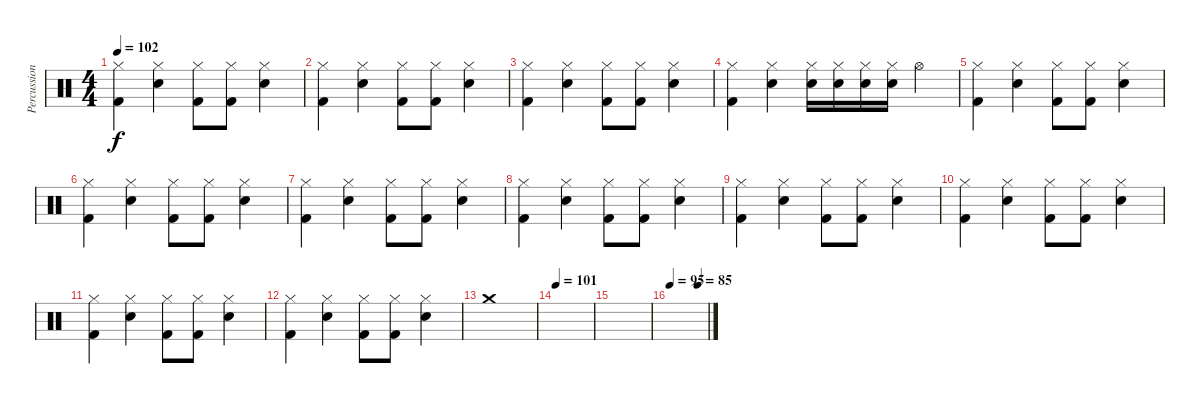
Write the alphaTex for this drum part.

\track ("Percussion" "Percussion") {instrument percussion}
\staff {score}
\articulation defaults
\ts (4 4)
\tempo 102
\clef neutral
\ks c
("Hi-Hat (closed)" "Kick (hit) 2").4{dy f} ("Hi-Hat (closed)" "Snare (hit) 2").4 ("Hi-Hat (closed)" "Kick (hit) 2").8 ("Hi-Hat (closed)" "Kick (hit) 2").8 ("Hi-Hat (closed)" "Snare (hit) 2").4 |
("Hi-Hat (closed)" "Kick (hit) 2").4 ("Hi-Hat (closed)" "Snare (hit) 2").4 ("Hi-Hat (closed)" "Kick (hit) 2").8 ("Hi-Hat (closed)" "Kick (hit) 2").8 ("Hi-Hat (closed)" "Snare (hit) 2").4 |
("Hi-Hat (closed)" "Kick (hit) 2").4 ("Hi-Hat (closed)" "Snare (hit) 2").4 ("Hi-Hat (closed)" "Kick (hit) 2").8 ("Hi-Hat (closed)" "Kick (hit) 2").8 ("Hi-Hat (closed)" "Snare (hit) 2").4 |
("Hi-Hat (closed)" "Kick (hit) 2").4 ("Hi-Hat (closed)" "Snare (hit) 2").4 ("Hi-Hat (closed)" "Snare (hit) 2").16 ("Hi-Hat (closed)" "Snare (hit) 2").16 ("Hi-Hat (closed)" "Snare (hit) 2").16 ("Hi-Hat (closed)" "Snare (hit) 2").16 "Hi-Hat (open)".4 |
("Hi-Hat (closed)" "Kick (hit) 2").4 ("Hi-Hat (closed)" "Snare (hit) 2").4 ("Hi-Hat (closed)" "Kick (hit) 2").8 ("Hi-Hat (closed)" "Kick (hit) 2").8 ("Hi-Hat (closed)" "Snare (hit) 2").4 |
("Hi-Hat (closed)" "Kick (hit) 2").4 ("Hi-Hat (closed)" "Snare (hit) 2").4 ("Hi-Hat (closed)" "Kick (hit) 2").8 ("Hi-Hat (closed)" "Kick (hit) 2").8 ("Hi-Hat (closed)" "Snare (hit) 2").4 |
("Hi-Hat (closed)" "Kick (hit) 2").4 ("Hi-Hat (closed)" "Snare (hit) 2").4 ("Hi-Hat (closed)" "Kick (hit) 2").8 ("Hi-Hat (closed)" "Kick (hit) 2").8 ("Hi-Hat (closed)" "Snare (hit) 2").4 |
("Hi-Hat (closed)" "Kick (hit) 2").4 ("Hi-Hat (closed)" "Snare (hit) 2").4 ("Hi-Hat (closed)" "Kick (hit) 2").8 ("Hi-Hat (closed)" "Kick (hit) 2").8 ("Hi-Hat (closed)" "Snare (hit) 2").4 |
("Hi-Hat (closed)" "Kick (hit) 2").4 ("Hi-Hat (closed)" "Snare (hit) 2").4 ("Hi-Hat (closed)" "Kick (hit) 2").8 ("Hi-Hat (closed)" "Kick (hit) 2").8 ("Hi-Hat (closed)" "Snare (hit) 2").4 |
("Hi-Hat (closed)" "Kick (hit) 2").4 ("Hi-Hat (closed)" "Snare (hit) 2").4 ("Hi-Hat (closed)" "Kick (hit) 2").8 ("Hi-Hat (closed)" "Kick (hit) 2").8 ("Hi-Hat (closed)" "Snare (hit) 2").4 |
("Hi-Hat (closed)" "Kick (hit) 2").4 ("Hi-Hat (closed)" "Snare (hit) 2").4 ("Hi-Hat (closed)" "Kick (hit) 2").8 ("Hi-Hat (closed)" "Kick (hit) 2").8 ("Hi-Hat (closed)" "Snare (hit) 2").4 |
("Hi-Hat (closed)" "Kick (hit) 2").4 ("Hi-Hat (closed)" "Snare (hit) 2").4 ("Hi-Hat (closed)" "Kick (hit) 2").8 ("Hi-Hat (closed)" "Kick (hit) 2").8 ("Hi-Hat (closed)" "Snare (hit) 2").4 |
"Crash medium (hit)".1 |
\tempo 101
|
|
\tempo 95
\tempo (85 0.75)
